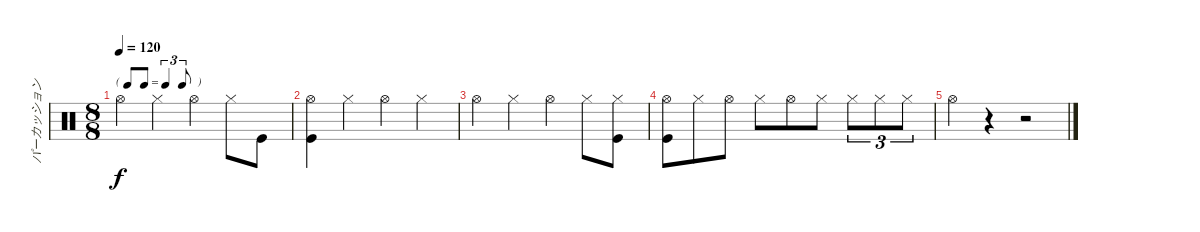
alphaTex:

\track ("パーカッション" "パーカッション") {instrument percussion}
\staff {score}
\articulation defaults
\ts (8 8)
\tf triplet8th
\tempo 120
\clef neutral
\ks c "Hi-Hat (open)".4{dy f} "Hi-Hat (closed)".4 "Hi-Hat (open)".4 "Hi-Hat (closed)".8 "Kick (hit)".8
|
("Hi-Hat (open)" "Kick (hit)").4 "Hi-Hat (closed)".4 "Hi-Hat (open)".4 "Hi-Hat (closed)".4 |
"Hi-Hat (open)".4 "Hi-Hat (closed)".4 "Hi-Hat (open)".4 "Hi-Hat (closed)".8 ("Hi-Hat (closed)" "Kick (hit)").8 |
("Hi-Hat (open)" "Kick (hit)").8 "Hi-Hat (closed)".8 "Hi-Hat (open)".8 "Hi-Hat (closed)".8 "Hi-Hat (open)".8 "Hi-Hat (closed)".8 "Hi-Hat (closed)".8{tu (3 2)} "Hi-Hat (closed)".8{tu (3 2)} "Hi-Hat (closed)".8{tu (3 2)} |
"Hi-Hat (open)".4 r.4 r.2
